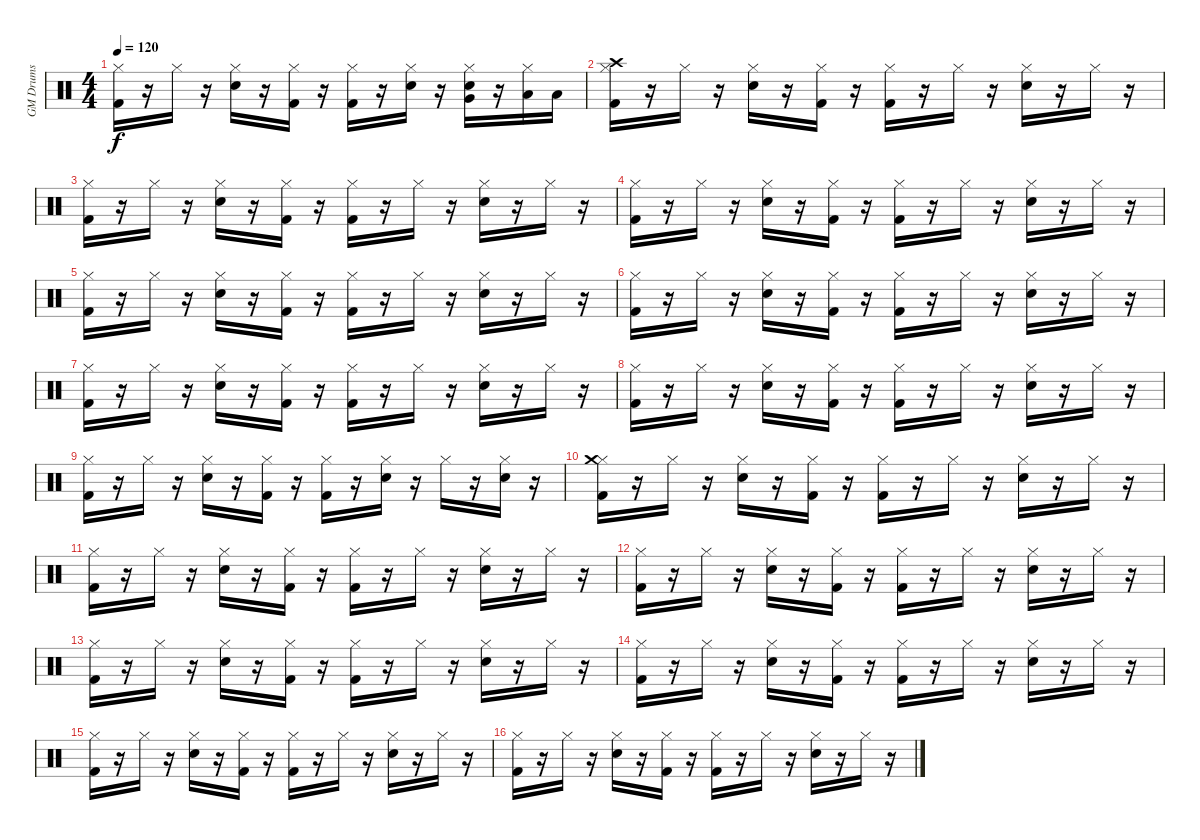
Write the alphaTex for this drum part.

\track ("GM Drums" "GM Drums") {instrument percussion}
\staff {score}
\articulation defaults
\ts (4 4)
\tempo 120
\clef neutral
\ks c
("Kick (hit) 2" "Hi-Hat (closed)").16{dy f} r.16 "Hi-Hat (closed)".16 r.16 ("Snare (hit) 2" "Hi-Hat (closed)").16 r.16 ("Kick (hit) 2" "Hi-Hat (closed)").16 r.16 ("Kick (hit) 2" "Hi-Hat (closed)").16 r.16 ("Snare (hit) 2" "Hi-Hat (closed)").16 r.16 ("Snare (hit) 2" "Hi-Hat (closed)" "Very Low Tom (hit)").16 r.16 ("Hi-Hat (closed)" "Low Tom (hit)").16 "Low Tom (hit)".16 |
("Kick (hit) 2" "Hi-Hat (closed)" "Crash high (hit)").16 r.16 "Hi-Hat (closed)".16 r.16 ("Snare (hit) 2" "Hi-Hat (closed)").16 r.16 ("Kick (hit) 2" "Hi-Hat (closed)").16 r.16 ("Kick (hit) 2" "Hi-Hat (closed)").16 r.16 "Hi-Hat (closed)".16 r.16 ("Snare (hit) 2" "Hi-Hat (closed)").16 r.16 "Hi-Hat (closed)".16 r.16 |
("Kick (hit) 2" "Hi-Hat (closed)").16 r.16 "Hi-Hat (closed)".16 r.16 ("Snare (hit) 2" "Hi-Hat (closed)").16 r.16 ("Kick (hit) 2" "Hi-Hat (closed)").16 r.16 ("Kick (hit) 2" "Hi-Hat (closed)").16 r.16 "Hi-Hat (closed)".16 r.16 ("Snare (hit) 2" "Hi-Hat (closed)").16 r.16 "Hi-Hat (closed)".16 r.16 |
("Kick (hit) 2" "Hi-Hat (closed)").16 r.16 "Hi-Hat (closed)".16 r.16 ("Snare (hit) 2" "Hi-Hat (closed)").16 r.16 ("Kick (hit) 2" "Hi-Hat (closed)").16 r.16 ("Kick (hit) 2" "Hi-Hat (closed)").16 r.16 "Hi-Hat (closed)".16 r.16 ("Snare (hit) 2" "Hi-Hat (closed)").16 r.16 "Hi-Hat (closed)".16 r.16 |
("Kick (hit) 2" "Hi-Hat (closed)").16 r.16 "Hi-Hat (closed)".16 r.16 ("Snare (hit) 2" "Hi-Hat (closed)").16 r.16 ("Kick (hit) 2" "Hi-Hat (closed)").16 r.16 ("Kick (hit) 2" "Hi-Hat (closed)").16 r.16 "Hi-Hat (closed)".16 r.16 ("Snare (hit) 2" "Hi-Hat (closed)").16 r.16 "Hi-Hat (closed)".16 r.16 |
("Kick (hit) 2" "Hi-Hat (closed)").16 r.16 "Hi-Hat (closed)".16 r.16 ("Snare (hit) 2" "Hi-Hat (closed)").16 r.16 ("Kick (hit) 2" "Hi-Hat (closed)").16 r.16 ("Kick (hit) 2" "Hi-Hat (closed)").16 r.16 "Hi-Hat (closed)".16 r.16 ("Snare (hit) 2" "Hi-Hat (closed)").16 r.16 "Hi-Hat (closed)".16 r.16 |
("Kick (hit) 2" "Hi-Hat (closed)").16 r.16 "Hi-Hat (closed)".16 r.16 ("Snare (hit) 2" "Hi-Hat (closed)").16 r.16 ("Kick (hit) 2" "Hi-Hat (closed)").16 r.16 ("Kick (hit) 2" "Hi-Hat (closed)").16 r.16 "Hi-Hat (closed)".16 r.16 ("Snare (hit) 2" "Hi-Hat (closed)").16 r.16 "Hi-Hat (closed)".16 r.16 |
("Kick (hit) 2" "Hi-Hat (closed)").16 r.16 "Hi-Hat (closed)".16 r.16 ("Snare (hit) 2" "Hi-Hat (closed)").16 r.16 ("Kick (hit) 2" "Hi-Hat (closed)").16 r.16 ("Kick (hit) 2" "Hi-Hat (closed)").16 r.16 "Hi-Hat (closed)".16 r.16 ("Snare (hit) 2" "Hi-Hat (closed)").16 r.16 "Hi-Hat (closed)".16 r.16 |
("Kick (hit) 2" "Hi-Hat (closed)").16 r.16 "Hi-Hat (closed)".16 r.16 ("Snare (hit) 2" "Hi-Hat (closed)").16 r.16 ("Kick (hit) 2" "Hi-Hat (closed)").16 r.16 ("Kick (hit) 2" "Hi-Hat (closed)").16 r.16 ("Snare (hit) 2" "Hi-Hat (closed)").16 r.16 "Hi-Hat (closed)".16 r.16 ("Snare (hit) 2" "Hi-Hat (closed)").16 r.16 |
("Kick (hit) 2" "Hi-Hat (closed)" "Crash medium (hit)").16 r.16 "Hi-Hat (closed)".16 r.16 ("Snare (hit) 2" "Hi-Hat (closed)").16 r.16 ("Kick (hit) 2" "Hi-Hat (closed)").16 r.16 ("Kick (hit) 2" "Hi-Hat (closed)").16 r.16 "Hi-Hat (closed)".16 r.16 ("Snare (hit) 2" "Hi-Hat (closed)").16 r.16 "Hi-Hat (closed)".16 r.16 |
("Kick (hit) 2" "Hi-Hat (closed)").16 r.16 "Hi-Hat (closed)".16 r.16 ("Snare (hit) 2" "Hi-Hat (closed)").16 r.16 ("Kick (hit) 2" "Hi-Hat (closed)").16 r.16 ("Kick (hit) 2" "Hi-Hat (closed)").16 r.16 "Hi-Hat (closed)".16 r.16 ("Snare (hit) 2" "Hi-Hat (closed)").16 r.16 "Hi-Hat (closed)".16 r.16 |
("Kick (hit) 2" "Hi-Hat (closed)").16 r.16 "Hi-Hat (closed)".16 r.16 ("Snare (hit) 2" "Hi-Hat (closed)").16 r.16 ("Kick (hit) 2" "Hi-Hat (closed)").16 r.16 ("Kick (hit) 2" "Hi-Hat (closed)").16 r.16 "Hi-Hat (closed)".16 r.16 ("Snare (hit) 2" "Hi-Hat (closed)").16 r.16 "Hi-Hat (closed)".16 r.16 |
("Kick (hit) 2" "Hi-Hat (closed)").16 r.16 "Hi-Hat (closed)".16 r.16 ("Snare (hit) 2" "Hi-Hat (closed)").16 r.16 ("Kick (hit) 2" "Hi-Hat (closed)").16 r.16 ("Kick (hit) 2" "Hi-Hat (closed)").16 r.16 "Hi-Hat (closed)".16 r.16 ("Snare (hit) 2" "Hi-Hat (closed)").16 r.16 "Hi-Hat (closed)".16 r.16 |
("Kick (hit) 2" "Hi-Hat (closed)").16 r.16 "Hi-Hat (closed)".16 r.16 ("Snare (hit) 2" "Hi-Hat (closed)").16 r.16 ("Kick (hit) 2" "Hi-Hat (closed)").16 r.16 ("Kick (hit) 2" "Hi-Hat (closed)").16 r.16 "Hi-Hat (closed)".16 r.16 ("Snare (hit) 2" "Hi-Hat (closed)").16 r.16 "Hi-Hat (closed)".16 r.16 |
("Kick (hit) 2" "Hi-Hat (closed)").16 r.16 "Hi-Hat (closed)".16 r.16 ("Snare (hit) 2" "Hi-Hat (closed)").16 r.16 ("Kick (hit) 2" "Hi-Hat (closed)").16 r.16 ("Kick (hit) 2" "Hi-Hat (closed)").16 r.16 "Hi-Hat (closed)".16 r.16 ("Snare (hit) 2" "Hi-Hat (closed)").16 r.16 "Hi-Hat (closed)".16 r.16 |
("Kick (hit) 2" "Hi-Hat (closed)").16 r.16 "Hi-Hat (closed)".16 r.16 ("Snare (hit) 2" "Hi-Hat (closed)").16 r.16 ("Kick (hit) 2" "Hi-Hat (closed)").16 r.16 ("Kick (hit) 2" "Hi-Hat (closed)").16 r.16 "Hi-Hat (closed)".16 r.16 ("Snare (hit) 2" "Hi-Hat (closed)").16 r.16 "Hi-Hat (closed)".16 r.16
